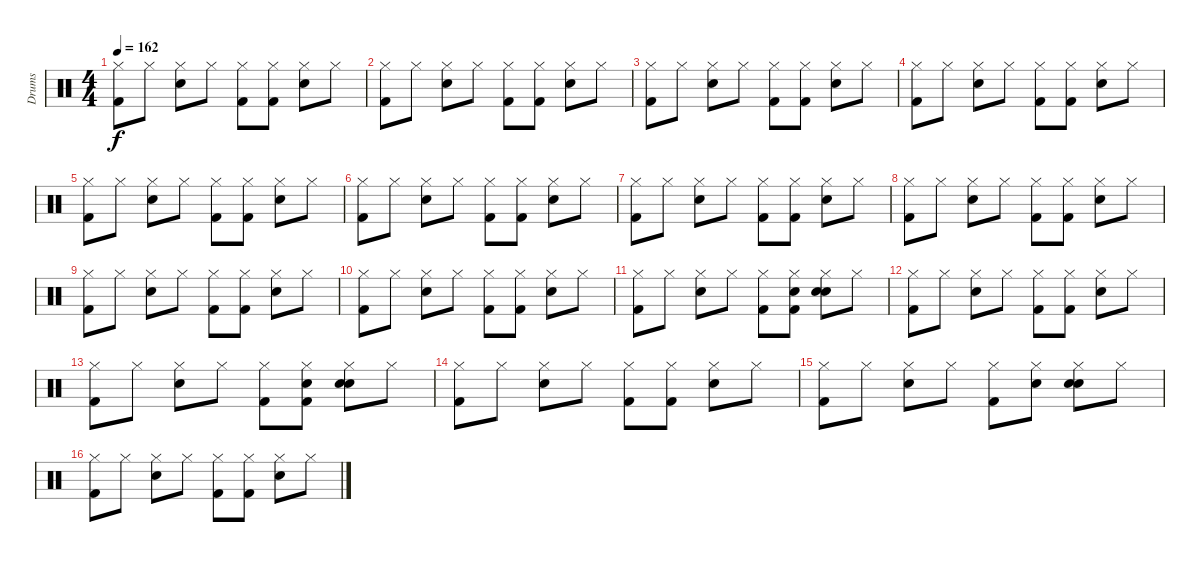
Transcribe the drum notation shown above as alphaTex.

\track ("Drums" "Drums") {instrument percussion}
\staff {score}
\articulation defaults
\ts (4 4)
\tempo 162
\clef neutral
\ks c
("Hi-Hat (closed)" "Kick (hit) 2").8{dy f} "Hi-Hat (closed)".8 ("Hi-Hat (closed)" "Snare (hit) 2").8 "Hi-Hat (closed)".8 ("Hi-Hat (closed)" "Kick (hit) 2").8 ("Hi-Hat (closed)" "Kick (hit) 2").8 ("Hi-Hat (closed)" "Snare (hit) 2").8 "Hi-Hat (closed)".8 |
("Hi-Hat (closed)" "Kick (hit) 2").8 "Hi-Hat (closed)".8 ("Hi-Hat (closed)" "Snare (hit) 2").8 "Hi-Hat (closed)".8 ("Hi-Hat (closed)" "Kick (hit) 2").8 ("Hi-Hat (closed)" "Kick (hit) 2").8 ("Hi-Hat (closed)" "Snare (hit) 2").8 "Hi-Hat (closed)".8 |
("Hi-Hat (closed)" "Kick (hit) 2").8 "Hi-Hat (closed)".8 ("Hi-Hat (closed)" "Snare (hit) 2").8 "Hi-Hat (closed)".8 ("Hi-Hat (closed)" "Kick (hit) 2").8 ("Hi-Hat (closed)" "Kick (hit) 2").8 ("Hi-Hat (closed)" "Snare (hit) 2").8 "Hi-Hat (closed)".8 |
("Hi-Hat (closed)" "Kick (hit) 2").8 "Hi-Hat (closed)".8 ("Hi-Hat (closed)" "Snare (hit) 2").8 "Hi-Hat (closed)".8 ("Hi-Hat (closed)" "Kick (hit) 2").8 ("Hi-Hat (closed)" "Kick (hit) 2").8 ("Hi-Hat (closed)" "Snare (hit) 2").8 "Hi-Hat (closed)".8 |
("Hi-Hat (closed)" "Kick (hit) 2").8 "Hi-Hat (closed)".8 ("Hi-Hat (closed)" "Snare (hit) 2").8 "Hi-Hat (closed)".8 ("Hi-Hat (closed)" "Kick (hit) 2").8 ("Hi-Hat (closed)" "Kick (hit) 2").8 ("Hi-Hat (closed)" "Snare (hit) 2").8 "Hi-Hat (closed)".8 |
("Hi-Hat (closed)" "Kick (hit) 2").8 "Hi-Hat (closed)".8 ("Hi-Hat (closed)" "Snare (hit) 2").8 "Hi-Hat (closed)".8 ("Hi-Hat (closed)" "Kick (hit) 2").8 ("Hi-Hat (closed)" "Kick (hit) 2").8 ("Hi-Hat (closed)" "Snare (hit) 2").8 "Hi-Hat (closed)".8 |
("Hi-Hat (closed)" "Kick (hit) 2").8 "Hi-Hat (closed)".8 ("Hi-Hat (closed)" "Snare (hit) 2").8 "Hi-Hat (closed)".8 ("Hi-Hat (closed)" "Kick (hit) 2").8 ("Hi-Hat (closed)" "Kick (hit) 2").8 ("Hi-Hat (closed)" "Snare (hit) 2").8 "Hi-Hat (closed)".8 |
("Hi-Hat (closed)" "Kick (hit) 2").8 "Hi-Hat (closed)".8 ("Hi-Hat (closed)" "Snare (hit) 2").8 "Hi-Hat (closed)".8 ("Hi-Hat (closed)" "Kick (hit) 2").8 ("Hi-Hat (closed)" "Kick (hit) 2").8 ("Hi-Hat (closed)" "Snare (hit) 2").8 "Hi-Hat (closed)".8 |
("Hi-Hat (closed)" "Kick (hit) 2").8 "Hi-Hat (closed)".8 ("Hi-Hat (closed)" "Snare (hit) 2").8 "Hi-Hat (closed)".8 ("Hi-Hat (closed)" "Kick (hit) 2").8 ("Hi-Hat (closed)" "Kick (hit) 2").8 ("Hi-Hat (closed)" "Snare (hit) 2").8 "Hi-Hat (closed)".8 |
("Hi-Hat (closed)" "Kick (hit) 2").8 "Hi-Hat (closed)".8 ("Hi-Hat (closed)" "Snare (hit) 2").8 "Hi-Hat (closed)".8 ("Hi-Hat (closed)" "Kick (hit) 2").8 ("Hi-Hat (closed)" "Kick (hit) 2").8 ("Hi-Hat (closed)" "Snare (hit) 2").8 "Hi-Hat (closed)".8 |
("Hi-Hat (closed)" "Kick (hit) 2").8 "Hi-Hat (closed)".8 ("Hi-Hat (closed)" "Snare (hit) 2").8 "Hi-Hat (closed)".8 ("Hi-Hat (closed)" "Kick (hit) 2").8 ("Hi-Hat (closed)" "Hand Clap (hit)" "Kick (hit) 2").8 ("Hi-Hat (closed)" "Snare (hit) 2" "Hand Clap (hit)").8 "Hi-Hat (closed)".8 |
("Hi-Hat (closed)" "Kick (hit) 2").8 "Hi-Hat (closed)".8 ("Hi-Hat (closed)" "Snare (hit) 2").8 "Hi-Hat (closed)".8 ("Hi-Hat (closed)" "Kick (hit) 2").8 ("Hi-Hat (closed)" "Kick (hit) 2").8 ("Hi-Hat (closed)" "Snare (hit) 2").8 "Hi-Hat (closed)".8 |
("Hi-Hat (closed)" "Kick (hit) 2").8 "Hi-Hat (closed)".8 ("Hi-Hat (closed)" "Snare (hit) 2").8 "Hi-Hat (closed)".8 ("Hi-Hat (closed)" "Kick (hit) 2").8 ("Hi-Hat (closed)" "Hand Clap (hit)" "Kick (hit) 2").8 ("Hi-Hat (closed)" "Snare (hit) 2" "Hand Clap (hit)").8 "Hi-Hat (closed)".8 |
("Hi-Hat (closed)" "Kick (hit) 2").8 "Hi-Hat (closed)".8 ("Hi-Hat (closed)" "Snare (hit) 2").8 "Hi-Hat (closed)".8 ("Hi-Hat (closed)" "Kick (hit) 2").8 ("Hi-Hat (closed)" "Kick (hit) 2").8 ("Hi-Hat (closed)" "Snare (hit) 2").8 "Hi-Hat (closed)".8 |
("Hi-Hat (closed)" "Kick (hit) 2").8 "Hi-Hat (closed)".8 ("Hi-Hat (closed)" "Snare (hit) 2").8 "Hi-Hat (closed)".8 ("Hi-Hat (closed)" "Kick (hit) 2").8 ("Hi-Hat (closed)" "Hand Clap (hit)").8 ("Hi-Hat (closed)" "Snare (hit) 2" "Hand Clap (hit)").8 "Hi-Hat (closed)".8 |
("Hi-Hat (closed)" "Kick (hit) 2").8 "Hi-Hat (closed)".8 ("Hi-Hat (closed)" "Snare (hit) 2").8 "Hi-Hat (closed)".8 ("Hi-Hat (closed)" "Kick (hit) 2").8 ("Hi-Hat (closed)" "Kick (hit) 2").8 ("Hi-Hat (closed)" "Snare (hit) 2").8 "Hi-Hat (closed)".8
